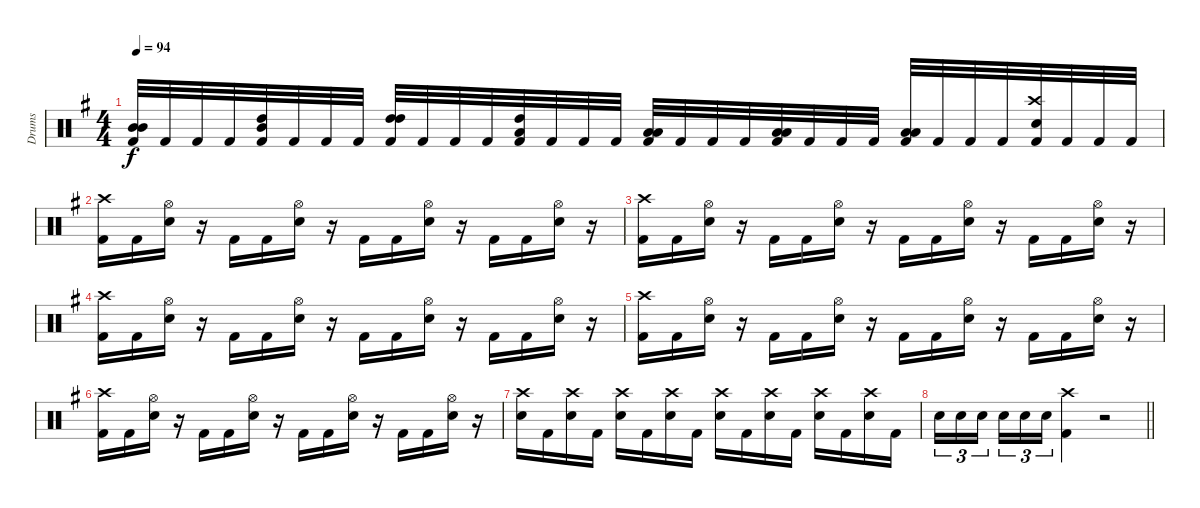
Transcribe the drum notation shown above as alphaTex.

\track ("Drums" "Drums") {instrument percussion}
\staff {score}
\articulation defaults
\ts (4 4)
\tempo 94
\clef neutral
\ks g
("Mid Tom (hit)" "Mid Tom (hit)" "Kick (hit) 2").32{dy f} "Kick (hit) 2".32 "Kick (hit) 2".32 "Kick (hit) 2".32 ("High Tom (hit)" "Mid Tom (hit)" "Kick (hit) 2").32 "Kick (hit) 2".32 "Kick (hit) 2".32 "Kick (hit) 2".32 ("High Tom (hit)" "High Tom (hit)" "Kick (hit) 2").32 "Kick (hit) 2".32 "Kick (hit) 2".32 "Kick (hit) 2".32 ("Low Tom (hit)" "High Tom (hit)" "Kick (hit) 2").32 "Kick (hit) 2".32 "Kick (hit) 2".32 "Kick (hit) 2".32 ("Low Tom (hit)" "Low Tom (hit)" "Kick (hit) 2").32 "Kick (hit) 2".32 "Kick (hit) 2".32 "Kick (hit) 2".32 ("Low Tom (hit)" "Low Tom (hit)" "Kick (hit) 2").32 "Kick (hit) 2".32 "Kick (hit) 2".32 "Kick (hit) 2".32 ("Low Tom (hit)" "Low Tom (hit)" "Kick (hit) 2").32 "Kick (hit) 2".32 "Kick (hit) 2".32 "Kick (hit) 2".32 ("Crash high (hit)" "Snare (hit) 2" "Kick (hit) 2").32 "Kick (hit) 2".32 "Kick (hit) 2".32 "Kick (hit) 2".32 |
("Crash high (hit)" "Kick (hit) 2").16 "Kick (hit) 2".16 ("Hi-Hat (open)" "Snare (hit) 2").16 r.16 "Kick (hit) 2".16 "Kick (hit) 2".16 ("Hi-Hat (open)" "Snare (hit) 2").16 r.16 "Kick (hit) 2".16 "Kick (hit) 2".16 ("Hi-Hat (open)" "Snare (hit) 2").16 r.16 "Kick (hit) 2".16 "Kick (hit) 2".16 ("Hi-Hat (open)" "Snare (hit) 2").16 r.16 |
("Crash high (hit)" "Kick (hit) 2").16 "Kick (hit) 2".16 ("Hi-Hat (open)" "Snare (hit) 2").16 r.16 "Kick (hit) 2".16 "Kick (hit) 2".16 ("Hi-Hat (open)" "Snare (hit) 2").16 r.16 "Kick (hit) 2".16 "Kick (hit) 2".16 ("Hi-Hat (open)" "Snare (hit) 2").16 r.16 "Kick (hit) 2".16 "Kick (hit) 2".16 ("Hi-Hat (open)" "Snare (hit) 2").16 r.16 |
("Crash high (hit)" "Kick (hit) 2").16 "Kick (hit) 2".16 ("Hi-Hat (open)" "Snare (hit) 2").16 r.16 "Kick (hit) 2".16 "Kick (hit) 2".16 ("Hi-Hat (open)" "Snare (hit) 2").16 r.16 "Kick (hit) 2".16 "Kick (hit) 2".16 ("Hi-Hat (open)" "Snare (hit) 2").16 r.16 "Kick (hit) 2".16 "Kick (hit) 2".16 ("Hi-Hat (open)" "Snare (hit) 2").16 r.16 |
("Crash high (hit)" "Kick (hit) 2").16 "Kick (hit) 2".16 ("Hi-Hat (open)" "Snare (hit) 2").16 r.16 "Kick (hit) 2".16 "Kick (hit) 2".16 ("Hi-Hat (open)" "Snare (hit) 2").16 r.16 "Kick (hit) 2".16 "Kick (hit) 2".16 ("Hi-Hat (open)" "Snare (hit) 2").16 r.16 "Kick (hit) 2".16 "Kick (hit) 2".16 ("Hi-Hat (open)" "Snare (hit) 2").16 r.16 |
("Crash high (hit)" "Kick (hit) 2").16 "Kick (hit) 2".16 ("Hi-Hat (open)" "Snare (hit) 2").16 r.16 "Kick (hit) 2".16 "Kick (hit) 2".16 ("Hi-Hat (open)" "Snare (hit) 2").16 r.16 "Kick (hit) 2".16 "Kick (hit) 2".16 ("Hi-Hat (open)" "Snare (hit) 2").16 r.16 "Kick (hit) 2".16 "Kick (hit) 2".16 ("Hi-Hat (open)" "Snare (hit) 2").16 r.16 |
("Crash high (hit)" "Snare (hit) 2").16 "Kick (hit) 2".16 ("Crash high (hit)" "Snare (hit) 2").16 "Kick (hit) 2".16 ("Crash high (hit)" "Snare (hit) 2").16 "Kick (hit) 2".16 ("Crash high (hit)" "Snare (hit) 2").16 "Kick (hit) 2".16 ("Crash high (hit)" "Snare (hit) 2").16 "Kick (hit) 2".16 ("Crash high (hit)" "Snare (hit) 2").16 "Kick (hit) 2".16 ("Crash high (hit)" "Snare (hit) 2").16 "Kick (hit) 2".16 ("Crash high (hit)" "Snare (hit) 2").16 "Kick (hit) 2".16 |
\barLineRight lightlight "Snare (hit) 2".16{tu (3 2)} "Snare (hit) 2".16{tu (3 2)} "Snare (hit) 2".16{tu (3 2) beam splitsecondary} "Snare (hit) 2".16{tu (3 2)} "Snare (hit) 2".16{tu (3 2)} "Snare (hit) 2".16{tu (3 2)}
("Crash high (hit)" "Kick (hit) 2").4 r.2
